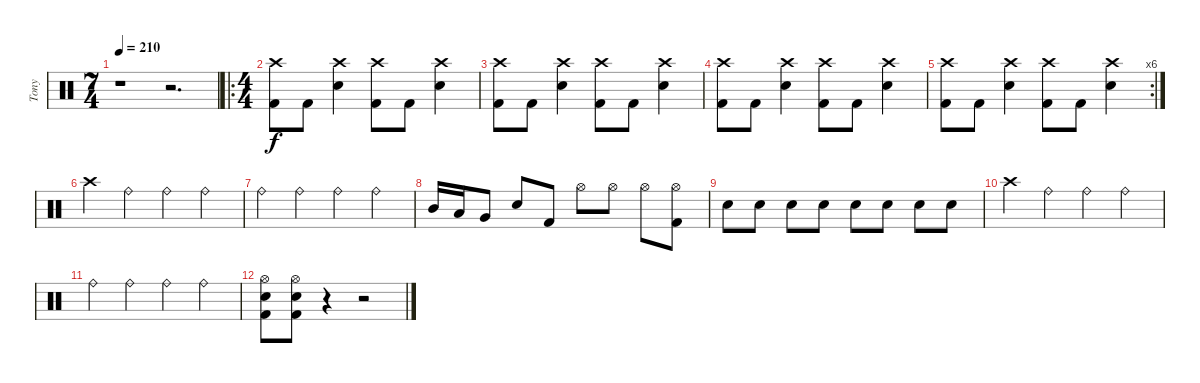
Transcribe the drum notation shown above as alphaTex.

\track ("Tony" "Tony") {instrument percussion}
\staff {score}
\articulation defaults
\ts (7 4)
\tempo 210
\clef neutral
\ks c
r.1{dy f} r.2{d} |
\ro
\ts (4 4)
("Kick (hit) 2" "Crash high (hit)").8 "Kick (hit) 2".8 ("Crash high (hit)" "Snare (hit) 2").4 ("Kick (hit) 2" "Crash high (hit)").8 "Kick (hit) 2".8 ("Crash high (hit)" "Snare (hit) 2").4 |
("Kick (hit) 2" "Crash high (hit)").8 "Kick (hit) 2".8 ("Crash high (hit)" "Snare (hit) 2").4 ("Kick (hit) 2" "Crash high (hit)").8 "Kick (hit) 2".8 ("Crash high (hit)" "Snare (hit) 2").4 |
("Kick (hit) 2" "Crash high (hit)").8 "Kick (hit) 2".8 ("Crash high (hit)" "Snare (hit) 2").4 ("Kick (hit) 2" "Crash high (hit)").8 "Kick (hit) 2".8 ("Crash high (hit)" "Snare (hit) 2").4 |
\rc 6
("Kick (hit) 2" "Crash high (hit)").8 "Kick (hit) 2".8 ("Crash high (hit)" "Snare (hit) 2").4 ("Kick (hit) 2" "Crash high (hit)").8 "Kick (hit) 2".8 ("Crash high (hit)" "Snare (hit) 2").4 |
"Crash high (hit)".4 "Ride (bell)".4 "Ride (bell)".4 "Ride (bell)".4 |
"Ride (bell)".4 "Ride (bell)".4 "Ride (bell)".4 "Ride (bell)".4 |
"Mid Tom (hit)".16 "Low Tom (hit)".16 "Very Low Tom (hit)".8 "Snare (hit) 2".8 "Kick (hit) 2".8 "Hi-Hat (open)".8 "Hi-Hat (open)".8 "Hi-Hat (open)".8 ("Kick (hit) 2" "Hi-Hat (open)").8 |
"Snare (hit) 2".8 "Snare (hit) 2".8 "Snare (hit) 2".8 "Snare (hit) 2".8 "Snare (hit) 2".8 "Snare (hit) 2".8 "Snare (hit) 2".8 "Snare (hit) 2".8 |
"Crash high (hit)".4 "Ride (bell)".4 "Ride (bell)".4 "Ride (bell)".4 |
"Ride (bell)".4 "Ride (bell)".4 "Ride (bell)".4 "Ride (bell)".4 |
("Kick (hit) 2" "Snare (hit) 2" "Hi-Hat (open)").8 ("Kick (hit) 2" "Snare (hit) 2" "Hi-Hat (open)").8 r.4 r.2
